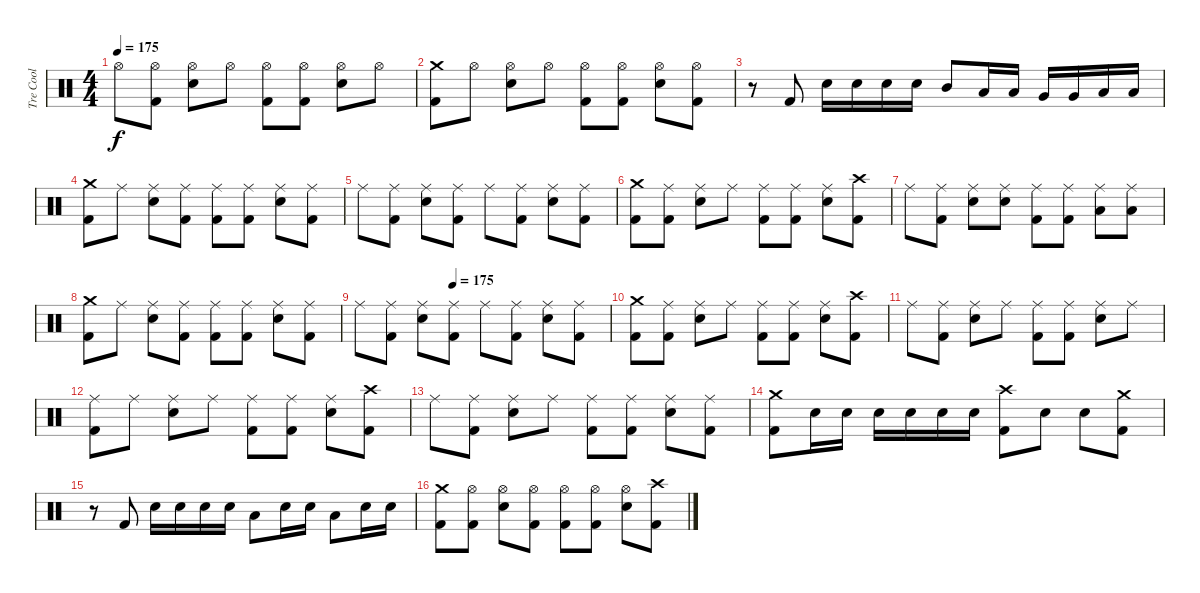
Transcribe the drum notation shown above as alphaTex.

\track ("Tre Cool" "Tre Cool") {instrument percussion}
\staff {score}
\articulation defaults
\ts (4 4)
\tempo 175
\clef neutral
\ks c "Hi-Hat (open)".8{dy f}
("Kick (hit) 2" "Hi-Hat (open)").8 ("Snare (hit) 2" "Hi-Hat (open)").8 "Hi-Hat (open)".8 ("Kick (hit) 2" "Hi-Hat (open)").8 ("Kick (hit) 2" "Hi-Hat (open)").8 ("Snare (hit) 2" "Hi-Hat (open)").8 "Hi-Hat (open)".8 |
("Kick (hit) 2" "Crash medium (hit)").8 "Hi-Hat (open)".8 ("Snare (hit) 2" "Hi-Hat (open)").8 "Hi-Hat (open)".8 ("Kick (hit) 2" "Hi-Hat (open)").8 ("Kick (hit) 2" "Hi-Hat (open)").8 ("Snare (hit) 2" "Hi-Hat (open)").8 ("Kick (hit) 2" "Hi-Hat (open)").8 |
r.8 "Kick (hit) 2".8 "Snare (hit) 2".16 "Snare (hit) 2".16 "Snare (hit) 2".16 "Snare (hit) 2".16 "Mid Tom (hit)".8 "Low Tom (hit)".16 "Low Tom (hit)".16 "Very Low Tom (hit)".16 "Very Low Tom (hit)".16 "Low Floor Tom (hit)".16 "Low Floor Tom (hit)".16 |
("Kick (hit) 2" "Crash medium (hit)").8 "Ride (middle)".8 ("Snare (hit) 2" "Ride (middle)").8 ("Kick (hit) 2" "Ride (middle)").8 ("Kick (hit) 2" "Ride (middle)").8 ("Kick (hit) 2" "Ride (middle)").8 ("Snare (hit) 2" "Ride (middle)").8 ("Kick (hit) 2" "Ride (middle)").8 |
"Ride (middle)".8 ("Kick (hit) 2" "Ride (middle)").8 ("Snare (hit) 2" "Ride (middle)").8 ("Kick (hit) 2" "Ride (middle)").8 "Ride (middle)".8 ("Kick (hit) 2" "Ride (middle)").8 ("Snare (hit) 2" "Ride (middle)").8 ("Kick (hit) 2" "Ride (middle)").8 |
("Kick (hit) 2" "Crash medium (hit)").8 ("Kick (hit) 2" "Ride (middle)").8 ("Snare (hit) 2" "Ride (middle)").8 "Ride (middle)".8 ("Kick (hit) 2" "Ride (middle)").8 ("Kick (hit) 2" "Ride (middle)").8 ("Snare (hit) 2" "Ride (middle)").8 ("Kick (hit) 2" "Crash high (hit)").8 |
"Ride (middle)".8 ("Kick (hit) 2" "Ride (middle)").8 ("Snare (hit) 2" "Ride (middle)").8 ("Snare (hit) 2" "Ride (middle)").8 ("Kick (hit) 2" "Ride (middle)").8 ("Kick (hit) 2" "Ride (middle)").8 ("Low Tom (hit)" "Ride (middle)").8 ("Low Tom (hit)" "Ride (middle)").8 |
("Kick (hit) 2" "Crash medium (hit)").8 "Ride (middle)".8 ("Snare (hit) 2" "Ride (middle)").8 ("Kick (hit) 2" "Ride (middle)").8 ("Kick (hit) 2" "Ride (middle)").8 ("Kick (hit) 2" "Ride (middle)").8 ("Snare (hit) 2" "Ride (middle)").8 ("Kick (hit) 2" "Ride (middle)").8 |
\tempo (175 0.375)
"Ride (middle)".8 ("Kick (hit) 2" "Ride (middle)").8 ("Snare (hit) 2" "Ride (middle)").8 ("Kick (hit) 2" "Ride (middle)").8 "Ride (middle)".8 ("Kick (hit) 2" "Ride (middle)").8 ("Snare (hit) 2" "Ride (middle)").8 ("Kick (hit) 2" "Ride (middle)").8 |
("Kick (hit) 2" "Crash medium (hit)").8 ("Kick (hit) 2" "Ride (middle)").8 ("Snare (hit) 2" "Ride (middle)").8 "Ride (middle)".8 ("Kick (hit) 2" "Ride (middle)").8 ("Kick (hit) 2" "Ride (middle)").8 ("Snare (hit) 2" "Ride (middle)").8 ("Kick (hit) 2" "Crash high (hit)").8 |
"Ride (middle)".8 ("Kick (hit) 2" "Ride (middle)").8 ("Snare (hit) 2" "Ride (middle)").8 "Ride (middle)".8 ("Kick (hit) 2" "Ride (middle)").8 ("Kick (hit) 2" "Ride (middle)").8 ("Snare (hit) 2" "Ride (middle)").8 "Ride (middle)".8 |
("Kick (hit) 2" "Ride (middle)").8 "Ride (middle)".8 ("Snare (hit) 2" "Ride (middle)").8 "Ride (middle)".8 ("Kick (hit) 2" "Ride (middle)").8 ("Kick (hit) 2" "Ride (middle)").8 ("Snare (hit) 2" "Ride (middle)").8 ("Kick (hit) 2" "Crash high (hit)").8 |
"Ride (middle)".8 ("Kick (hit) 2" "Ride (middle)").8 ("Snare (hit) 2" "Ride (middle)").8 "Ride (middle)".8 ("Kick (hit) 2" "Ride (middle)").8 ("Kick (hit) 2" "Ride (middle)").8 ("Snare (hit) 2" "Ride (middle)").8 ("Kick (hit) 2" "Ride (middle)").8 |
("Kick (hit) 2" "Crash medium (hit)").8 "Snare (hit) 2".16 "Snare (hit) 2".16 "Snare (hit) 2".16 "Snare (hit) 2".16 "Snare (hit) 2".16 "Snare (hit) 2".16 ("Kick (hit) 2" "Crash high (hit)").8 "Snare (hit) 2".8 "Snare (hit) 2".8 ("Kick (hit) 2" "Crash medium (hit)").8 |
r.8 "Kick (hit) 2".8 "Snare (hit) 2".16 "Snare (hit) 2".16 "Snare (hit) 2".16 "Snare (hit) 2".16 "Low Tom (hit)".8 "Snare (hit) 2".16 "Snare (hit) 2".16 "Low Tom (hit)".8 "Snare (hit) 2".16 "Snare (hit) 2".16 |
("Kick (hit) 2" "Crash medium (hit)").8 ("Kick (hit) 2" "Hi-Hat (open)").8 ("Snare (hit) 2" "Hi-Hat (open)").8 ("Kick (hit) 2" "Hi-Hat (open)").8 ("Kick (hit) 2" "Hi-Hat (open)").8 ("Kick (hit) 2" "Hi-Hat (open)").8 ("Snare (hit) 2" "Hi-Hat (open)").8 ("Kick (hit) 2" "Crash high (hit)").8
